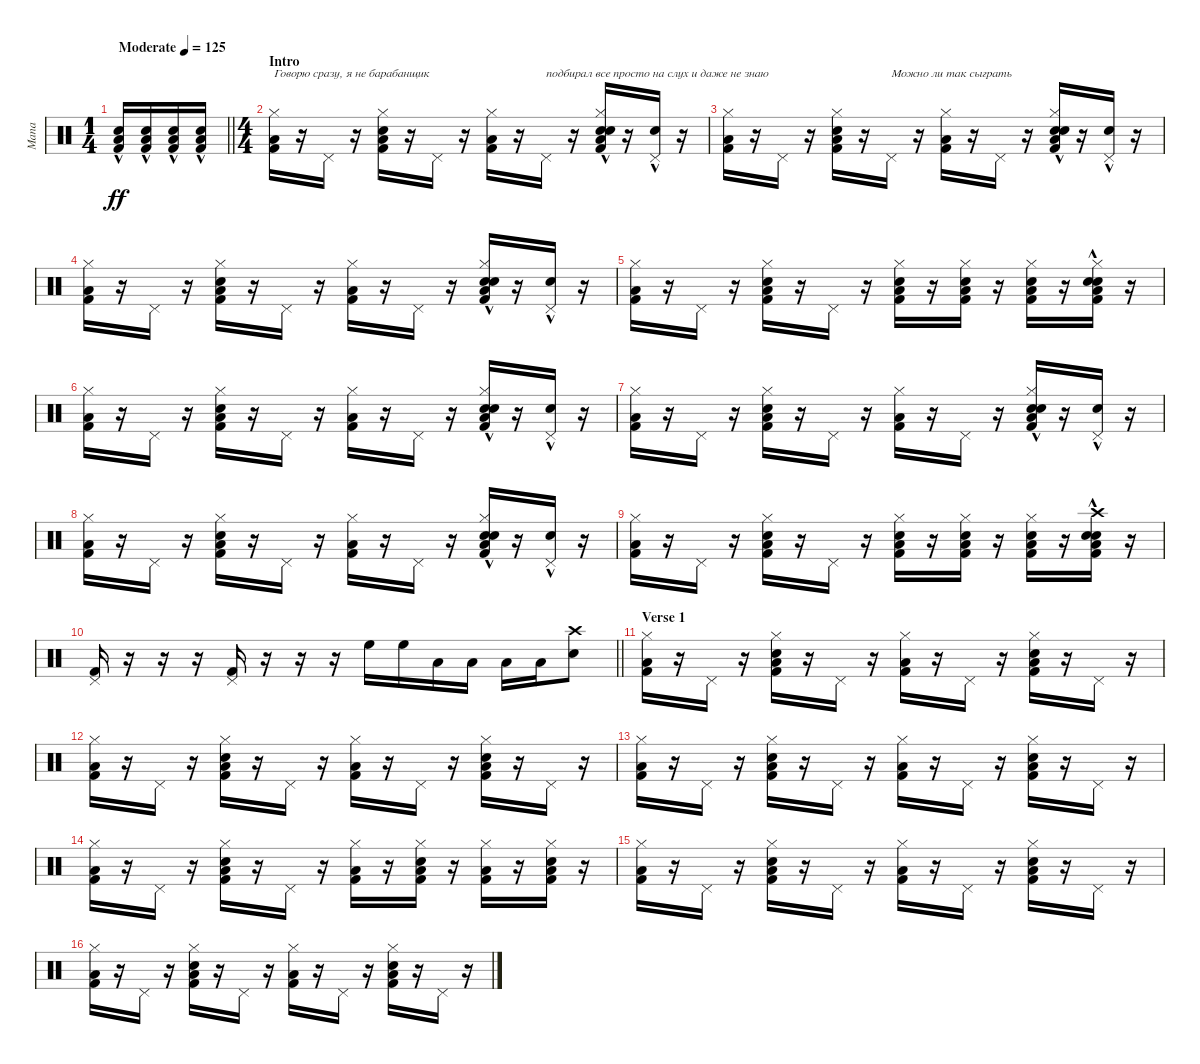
\track ("Mana" "Mana") {instrument percussion}
\staff {score}
\articulation defaults
\ts (1 4)
\tempo (125 "Moderate")
\clef neutral
\barLineRight lightlight
\ks c
("Low Floor Tom (hit)" "Snare (hit) 2"{hac} "Kick (hit) 2").16{dy ff} ("Low Floor Tom (hit)" "Snare (hit) 2"{hac} "Kick (hit) 2").16 ("Low Floor Tom (hit)" "Snare (hit) 2"{hac} "Kick (hit) 2").16 ("Low Floor Tom (hit)" "Snare (hit) 2"{hac} "Kick (hit) 2").16 |
\ts (4 4)
\section ("" "Intro")
("Hi-Hat (closed)" "Low Floor Tom (hit)" "Kick (hit) 2").16{txt "Говорю сразу, я не барабанщик"} r.16 "Pedal Hi-Hat (hit)".16 r.16 ("Hi-Hat (closed)" "Snare (hit) 2" "Low Floor Tom (hit)" "Kick (hit) 2").16 r.16 "Pedal Hi-Hat (hit)".16 r.16 ("Hi-Hat (closed)" "Low Floor Tom (hit)" "Kick (hit) 2").16 r.16 "Pedal Hi-Hat (hit)".16{txt "подбирал все просто на слух и даже не знаю"} r.16 ("Hand Clap (hit)"{hac} "Hi-Hat (closed)" "Snare (hit) 2" "Low Floor Tom (hit)" "Kick (hit) 2").16 r.16 ("Hand Clap (hit)"{hac} "Pedal Hi-Hat (hit)").16 r.16 |
("Hi-Hat (closed)" "Low Floor Tom (hit)" "Kick (hit) 2").16 r.16 "Pedal Hi-Hat (hit)".16 r.16 ("Hi-Hat (closed)" "Snare (hit) 2" "Low Floor Tom (hit)" "Kick (hit) 2").16 r.16 "Pedal Hi-Hat (hit)".16{txt "Можно ли так сыграть "} r.16 ("Hi-Hat (closed)" "Low Floor Tom (hit)" "Kick (hit) 2").16 r.16 "Pedal Hi-Hat (hit)".16 r.16 ("Hand Clap (hit)"{hac} "Hi-Hat (closed)" "Snare (hit) 2" "Low Floor Tom (hit)" "Kick (hit) 2").16 r.16 ("Hand Clap (hit)"{hac} "Pedal Hi-Hat (hit)").16 r.16 |
("Hi-Hat (closed)" "Low Floor Tom (hit)" "Kick (hit) 2").16 r.16 "Pedal Hi-Hat (hit)".16 r.16 ("Hi-Hat (closed)" "Snare (hit) 2" "Low Floor Tom (hit)" "Kick (hit) 2").16 r.16 "Pedal Hi-Hat (hit)".16 r.16 ("Hi-Hat (closed)" "Low Floor Tom (hit)" "Kick (hit) 2").16 r.16 "Pedal Hi-Hat (hit)".16 r.16 ("Hand Clap (hit)"{hac} "Hi-Hat (closed)" "Snare (hit) 2" "Low Floor Tom (hit)" "Kick (hit) 2").16 r.16 ("Hand Clap (hit)"{hac} "Pedal Hi-Hat (hit)").16 r.16 |
("Hi-Hat (closed)" "Low Floor Tom (hit)" "Kick (hit) 2").16 r.16 "Pedal Hi-Hat (hit)".16 r.16 ("Hi-Hat (closed)" "Snare (hit) 2" "Low Floor Tom (hit)" "Kick (hit) 2").16 r.16 "Pedal Hi-Hat (hit)".16 r.16 ("Hi-Hat (closed)" "Snare (hit) 2" "Low Floor Tom (hit)" "Kick (hit) 2").16 r.16 ("Hi-Hat (closed)" "Snare (hit) 2" "Low Floor Tom (hit)" "Kick (hit) 2").16 r.16 ("Hand Clap (hit)" "Hi-Hat (closed)" "Low Floor Tom (hit)" "Kick (hit) 2").16 r.16 ("Hand Clap (hit)"{hac} "Hi-Hat (closed)" "Snare (hit) 2" "Low Floor Tom (hit)" "Kick (hit) 2").16 r.16 |
("Hi-Hat (closed)" "Low Floor Tom (hit)" "Kick (hit) 2").16 r.16 "Pedal Hi-Hat (hit)".16 r.16 ("Hi-Hat (closed)" "Snare (hit) 2" "Low Floor Tom (hit)" "Kick (hit) 2").16 r.16 "Pedal Hi-Hat (hit)".16 r.16 ("Hi-Hat (closed)" "Low Floor Tom (hit)" "Kick (hit) 2").16 r.16 "Pedal Hi-Hat (hit)".16 r.16 ("Hand Clap (hit)"{hac} "Hi-Hat (closed)" "Snare (hit) 2" "Low Floor Tom (hit)" "Kick (hit) 2").16 r.16 ("Hand Clap (hit)"{hac} "Pedal Hi-Hat (hit)").16 r.16 |
("Hi-Hat (closed)" "Low Floor Tom (hit)" "Kick (hit) 2").16 r.16 "Pedal Hi-Hat (hit)".16 r.16 ("Hi-Hat (closed)" "Snare (hit) 2" "Low Floor Tom (hit)" "Kick (hit) 2").16 r.16 "Pedal Hi-Hat (hit)".16 r.16 ("Hi-Hat (closed)" "Low Floor Tom (hit)" "Kick (hit) 2").16 r.16 "Pedal Hi-Hat (hit)".16 r.16 ("Hand Clap (hit)"{hac} "Hi-Hat (closed)" "Snare (hit) 2" "Low Floor Tom (hit)" "Kick (hit) 2").16 r.16 ("Hand Clap (hit)"{hac} "Pedal Hi-Hat (hit)").16 r.16 |
("Hi-Hat (closed)" "Low Floor Tom (hit)" "Kick (hit) 2").16 r.16 "Pedal Hi-Hat (hit)".16 r.16 ("Hi-Hat (closed)" "Snare (hit) 2" "Low Floor Tom (hit)" "Kick (hit) 2").16 r.16 "Pedal Hi-Hat (hit)".16 r.16 ("Hi-Hat (closed)" "Low Floor Tom (hit)" "Kick (hit) 2").16 r.16 "Pedal Hi-Hat (hit)".16 r.16 ("Hand Clap (hit)"{hac} "Hi-Hat (closed)" "Snare (hit) 2" "Low Floor Tom (hit)" "Kick (hit) 2").16 r.16 ("Hand Clap (hit)"{hac} "Pedal Hi-Hat (hit)").16 r.16 |
("Hi-Hat (closed)" "Low Floor Tom (hit)" "Kick (hit) 2").16 r.16 "Pedal Hi-Hat (hit)".16 r.16 ("Hi-Hat (closed)" "Snare (hit) 2" "Low Floor Tom (hit)" "Kick (hit) 2").16 r.16 "Pedal Hi-Hat (hit)".16 r.16 ("Hi-Hat (closed)" "Snare (hit) 2" "Low Floor Tom (hit)" "Kick (hit) 2").16 r.16 ("Hi-Hat (closed)" "Snare (hit) 2" "Low Floor Tom (hit)" "Kick (hit) 2").16 r.16 ("Hand Clap (hit)" "Hi-Hat (closed)" "Low Floor Tom (hit)" "Kick (hit) 2").16 r.16 ("Hand Clap (hit)"{hac} "Crash high (hit)" "Snare (hit) 2" "Low Floor Tom (hit)" "Kick (hit) 2").16 r.16 |
\barLineRight lightlight
("Pedal Hi-Hat (hit)" "Kick (hit) 2").16 r.16 r.16 r.16 ("Pedal Hi-Hat (hit)" "Kick (hit) 2").16 r.16 r.16 r.16 "High Floor Tom (hit)".16 "High Floor Tom (hit)".16 "Low Floor Tom (hit)".16 "Low Floor Tom (hit)".16 "Low Floor Tom (hit)".16 "Low Floor Tom (hit)".16 ("Crash high (hit)" "Snare (hit) 2").8 |
\section ("" "Verse 1")
("Hi-Hat (closed)" "Low Floor Tom (hit)" "Kick (hit) 2").16 r.16 "Pedal Hi-Hat (hit)".16 r.16 ("Hi-Hat (closed)" "Snare (hit) 2" "Low Floor Tom (hit)" "Kick (hit) 2").16 r.16 "Pedal Hi-Hat (hit)".16 r.16 ("Hi-Hat (closed)" "Low Floor Tom (hit)" "Kick (hit) 2").16 r.16 "Pedal Hi-Hat (hit)".16 r.16 ("Hi-Hat (closed)" "Snare (hit) 2" "Low Floor Tom (hit)" "Kick (hit) 2").16 r.16 "Pedal Hi-Hat (hit)".16 r.16 |
("Hi-Hat (closed)" "Low Floor Tom (hit)" "Kick (hit) 2").16 r.16 "Pedal Hi-Hat (hit)".16 r.16 ("Hi-Hat (closed)" "Snare (hit) 2" "Low Floor Tom (hit)" "Kick (hit) 2").16 r.16 "Pedal Hi-Hat (hit)".16 r.16 ("Hi-Hat (closed)" "Low Floor Tom (hit)" "Kick (hit) 2").16 r.16 "Pedal Hi-Hat (hit)".16 r.16 ("Hi-Hat (closed)" "Snare (hit) 2" "Low Floor Tom (hit)" "Kick (hit) 2").16 r.16 "Pedal Hi-Hat (hit)".16 r.16 |
("Hi-Hat (closed)" "Low Floor Tom (hit)" "Kick (hit) 2").16 r.16 "Pedal Hi-Hat (hit)".16 r.16 ("Hi-Hat (closed)" "Snare (hit) 2" "Low Floor Tom (hit)" "Kick (hit) 2").16 r.16 "Pedal Hi-Hat (hit)".16 r.16 ("Hi-Hat (closed)" "Low Floor Tom (hit)" "Kick (hit) 2").16 r.16 "Pedal Hi-Hat (hit)".16 r.16 ("Hi-Hat (closed)" "Snare (hit) 2" "Low Floor Tom (hit)" "Kick (hit) 2").16 r.16 "Pedal Hi-Hat (hit)".16 r.16 |
("Hi-Hat (closed)" "Low Floor Tom (hit)" "Kick (hit) 2").16 r.16 "Pedal Hi-Hat (hit)".16 r.16 ("Hi-Hat (closed)" "Snare (hit) 2" "Low Floor Tom (hit)" "Kick (hit) 2").16 r.16 "Pedal Hi-Hat (hit)".16 r.16 ("Hi-Hat (closed)" "Low Floor Tom (hit)" "Kick (hit) 2").16 r.16 ("Hi-Hat (closed)" "Snare (hit) 2" "Low Floor Tom (hit)" "Kick (hit) 2").16 r.16 ("Hi-Hat (closed)" "Low Floor Tom (hit)" "Kick (hit) 2").16 r.16 ("Hi-Hat (closed)" "Snare (hit) 2" "Low Floor Tom (hit)" "Kick (hit) 2").16 r.16 |
("Hi-Hat (closed)" "Low Floor Tom (hit)" "Kick (hit) 2").16 r.16 "Pedal Hi-Hat (hit)".16 r.16 ("Hi-Hat (closed)" "Snare (hit) 2" "Low Floor Tom (hit)" "Kick (hit) 2").16 r.16 "Pedal Hi-Hat (hit)".16 r.16 ("Hi-Hat (closed)" "Low Floor Tom (hit)" "Kick (hit) 2").16 r.16 "Pedal Hi-Hat (hit)".16 r.16 ("Hi-Hat (closed)" "Snare (hit) 2" "Low Floor Tom (hit)" "Kick (hit) 2").16 r.16 "Pedal Hi-Hat (hit)".16 r.16 |
("Hi-Hat (closed)" "Low Floor Tom (hit)" "Kick (hit) 2").16 r.16 "Pedal Hi-Hat (hit)".16 r.16 ("Hi-Hat (closed)" "Snare (hit) 2" "Low Floor Tom (hit)" "Kick (hit) 2").16 r.16 "Pedal Hi-Hat (hit)".16 r.16 ("Hi-Hat (closed)" "Low Floor Tom (hit)" "Kick (hit) 2").16 r.16 "Pedal Hi-Hat (hit)".16 r.16 ("Hi-Hat (closed)" "Snare (hit) 2" "Low Floor Tom (hit)" "Kick (hit) 2").16 r.16 "Pedal Hi-Hat (hit)".16 r.16
